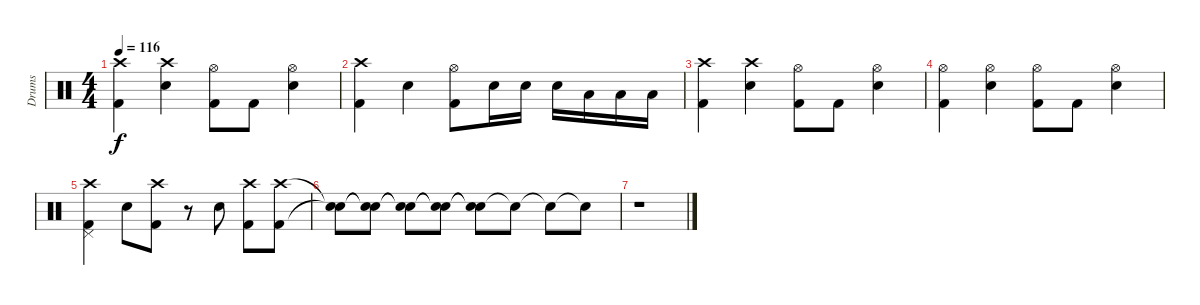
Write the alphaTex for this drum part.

\track ("Drums" "Drums") {instrument percussion}
\staff {score}
\articulation defaults
\ts (4 4)
\tempo 116
\clef neutral
\ks c
("Crash high (hit)" "Kick (hit) 2").4{dy f} ("Crash high (hit)" "Electric Snare (hit)").4 ("Hi-Hat (open)" "Kick (hit) 2").8 "Kick (hit) 2".8 ("Hi-Hat (open)" "Electric Snare (hit)").4 |
("Crash high (hit)" "Kick (hit) 2").4 "Electric Snare (hit)".4 ("Hi-Hat (open)" "Kick (hit) 2").8 "Electric Snare (hit)".16 "Electric Snare (hit)".16 "Electric Snare (hit)".16 "Low Tom (hit)".16 "Low Floor Tom (hit)".16 "Low Floor Tom (hit)".16 |
("Crash high (hit)" "Kick (hit) 2").4 ("Crash high (hit)" "Electric Snare (hit)").4 ("Hi-Hat (open)" "Kick (hit) 2").8 "Kick (hit) 2".8 ("Hi-Hat (open)" "Electric Snare (hit)").4 |
("Hi-Hat (open)" "Kick (hit) 2").4 ("Hi-Hat (open)" "Electric Snare (hit)").4 ("Hi-Hat (open)" "Kick (hit) 2").8 "Kick (hit) 2".8 ("Hi-Hat (open)" "Electric Snare (hit)").4 |
("Crash high (hit)" "Kick (hit) 2" "Pedal Hi-Hat (hit)").4 "Electric Snare (hit)".8 ("Crash high (hit)" "Kick (hit) 2").8 r.8 "Electric Snare (hit)".8 ("Crash high (hit)" "Kick (hit) 2").8 ("Crash high (hit)" "Kick (hit) 2").8 |
("Snare (hit)"{t} "Snare (hit)"{t}).8 ("Snare (hit)"{t} "Snare (hit)"{t}).8 ("Snare (hit)"{t} "Snare (hit)"{t}).8 ("Snare (hit)"{t} "Snare (hit)"{t}).8 ("Snare (hit)"{t} "Snare (hit)"{t}).8 "Snare (hit)"{t}.8 "Snare (hit)"{t}.8 "Snare (hit)"{t}.8 |
r.1
